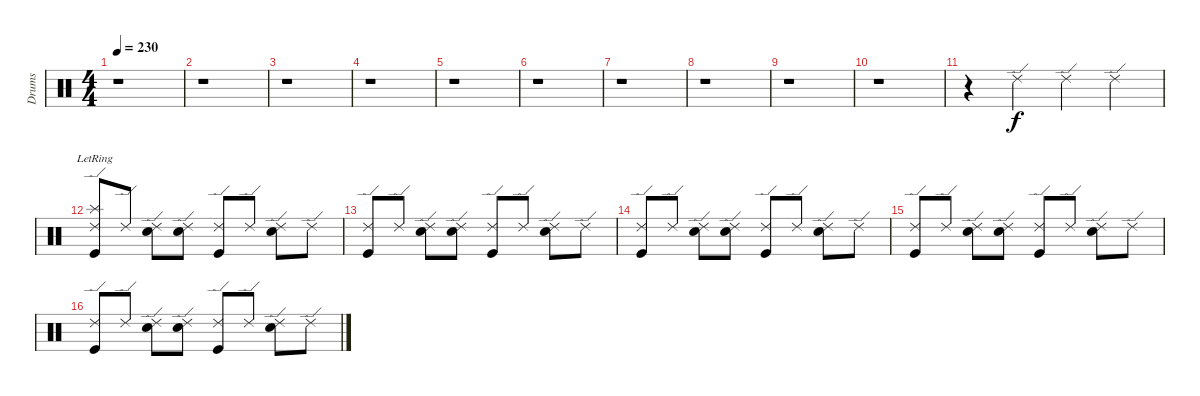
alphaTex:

\track ("Drums" "Drums") {instrument percussion}
\staff {score}
\articulation defaults
\ts (4 4)
\tempo 230
\clef neutral
\ks c
r.1{dy f} |
r.1 |
r.1 |
r.1 |
r.1 |
r.1 |
r.1 |
r.1 |
r.1 |
r.1 |
r.4 "Ride (edge) 2".4 "Ride (edge) 2".4 "Ride (edge) 2".4 |
("Ride (edge) 2" "Splash (hit)"{lr} "Kick (hit)").8 "Ride (edge) 2".8 ("Ride (edge) 2" "Snare (hit) 2").8 ("Ride (edge) 2" "Snare (hit) 2").8 ("Ride (edge) 2" "Kick (hit)").8 "Ride (edge) 2".8 ("Ride (edge) 2" "Snare (hit) 2").8 "Ride (edge) 2".8 |
("Ride (edge) 2" "Kick (hit)").8 "Ride (edge) 2".8 ("Ride (edge) 2" "Snare (hit) 2").8 ("Ride (edge) 2" "Snare (hit) 2").8 ("Ride (edge) 2" "Kick (hit)").8 "Ride (edge) 2".8 ("Ride (edge) 2" "Snare (hit) 2").8 "Ride (edge) 2".8 |
("Ride (edge) 2" "Kick (hit)").8 "Ride (edge) 2".8 ("Ride (edge) 2" "Snare (hit) 2").8 ("Ride (edge) 2" "Snare (hit) 2").8 ("Ride (edge) 2" "Kick (hit)").8 "Ride (edge) 2".8 ("Ride (edge) 2" "Snare (hit) 2").8 "Ride (edge) 2".8 |
("Ride (edge) 2" "Kick (hit)").8 "Ride (edge) 2".8 ("Ride (edge) 2" "Snare (hit) 2").8 ("Ride (edge) 2" "Snare (hit) 2").8 ("Ride (edge) 2" "Kick (hit)").8 "Ride (edge) 2".8 ("Ride (edge) 2" "Snare (hit) 2").8 "Ride (edge) 2".8 |
("Ride (edge) 2" "Kick (hit)").8 "Ride (edge) 2".8 ("Ride (edge) 2" "Snare (hit) 2").8 ("Ride (edge) 2" "Snare (hit) 2").8 ("Ride (edge) 2" "Kick (hit)").8 "Ride (edge) 2".8 ("Ride (edge) 2" "Snare (hit) 2").8 "Ride (edge) 2".8
